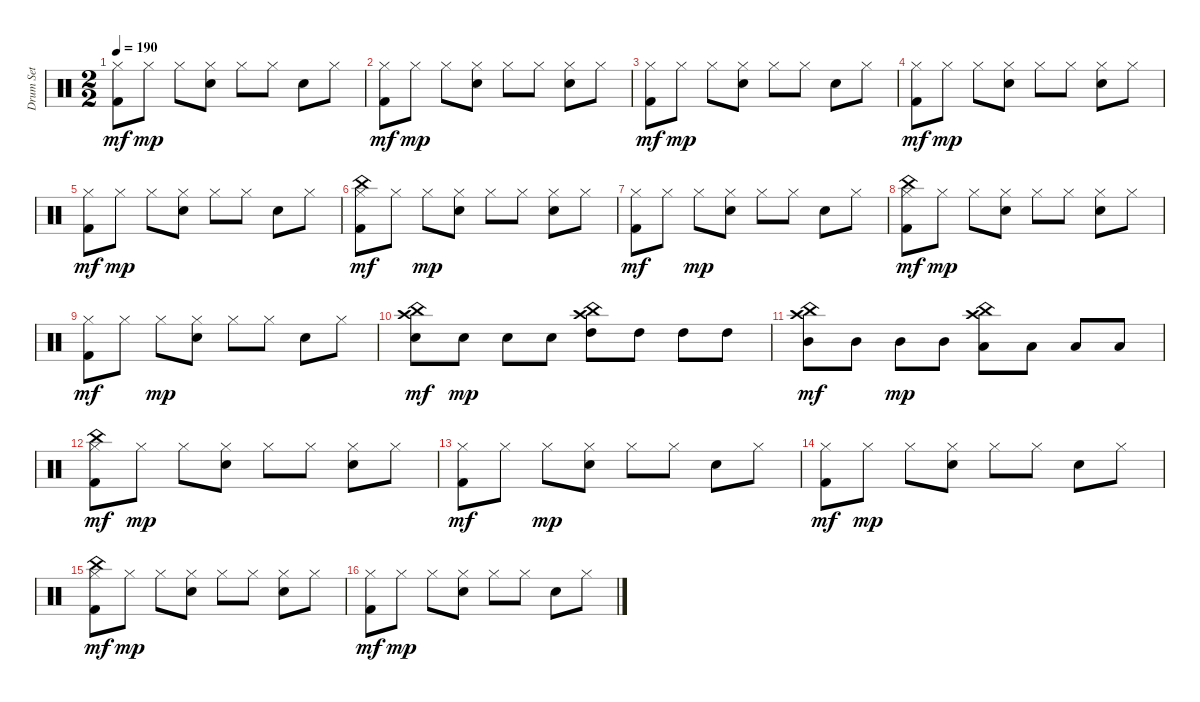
\track ("Drum Set" "Drum Set") {instrument percussion}
\staff {score}
\articulation defaults
\ts (2 2)
\tempo 190
\clef neutral
\ks c
("Kick (hit) 2" "Hi-Hat (closed)").8{dy mf} "Hi-Hat (closed)".8{dy mp} "Hi-Hat (closed)".8 ("Snare (hit) 2" "Hi-Hat (closed)").8 "Hi-Hat (closed)".8 "Hi-Hat (closed)".8 "Snare (hit) 2".8 "Hi-Hat (closed)".8 |
("Kick (hit) 2" "Hi-Hat (closed)").8{dy mf} "Hi-Hat (closed)".8{dy mp} "Hi-Hat (closed)".8 ("Snare (hit) 2" "Hi-Hat (closed)").8 "Hi-Hat (closed)".8 "Hi-Hat (closed)".8 ("Snare (hit) 2" "Hi-Hat (closed)").8 "Hi-Hat (closed)".8 |
("Kick (hit) 2" "Hi-Hat (closed)").8{dy mf} "Hi-Hat (closed)".8{dy mp} "Hi-Hat (closed)".8 ("Snare (hit) 2" "Hi-Hat (closed)").8 "Hi-Hat (closed)".8 "Hi-Hat (closed)".8 "Snare (hit) 2".8 "Hi-Hat (closed)".8 |
("Kick (hit) 2" "Hi-Hat (closed)").8{dy mf} "Hi-Hat (closed)".8{dy mp} "Hi-Hat (closed)".8 ("Snare (hit) 2" "Hi-Hat (closed)").8 "Hi-Hat (closed)".8 "Hi-Hat (closed)".8 ("Snare (hit) 2" "Hi-Hat (closed)").8 "Hi-Hat (closed)".8 |
("Kick (hit) 2" "Hi-Hat (closed)").8{dy mf} "Hi-Hat (closed)".8{dy mp} "Hi-Hat (closed)".8 ("Snare (hit) 2" "Hi-Hat (closed)").8 "Hi-Hat (closed)".8 "Hi-Hat (closed)".8 "Snare (hit) 2".8 "Hi-Hat (closed)".8 |
("Kick (hit) 2" "China (hit)" "Hi-Hat (closed)").8{dy mf} "Hi-Hat (closed)".8 "Hi-Hat (closed)".8{dy mp} ("Snare (hit) 2" "Hi-Hat (closed)").8 "Hi-Hat (closed)".8 "Hi-Hat (closed)".8 ("Snare (hit) 2" "Hi-Hat (closed)").8 "Hi-Hat (closed)".8 |
("Kick (hit) 2" "Hi-Hat (closed)").8{dy mf} "Hi-Hat (closed)".8 "Hi-Hat (closed)".8{dy mp} ("Snare (hit) 2" "Hi-Hat (closed)").8 "Hi-Hat (closed)".8 "Hi-Hat (closed)".8 "Snare (hit) 2".8 "Hi-Hat (closed)".8 |
("Kick (hit) 2" "China (hit)" "Hi-Hat (closed)").8{dy mf} "Hi-Hat (closed)".8{dy mp} "Hi-Hat (closed)".8 ("Snare (hit) 2" "Hi-Hat (closed)").8 "Hi-Hat (closed)".8 "Hi-Hat (closed)".8 ("Snare (hit) 2" "Hi-Hat (closed)").8 "Hi-Hat (closed)".8 |
("Kick (hit) 2" "Hi-Hat (closed)").8{dy mf} "Hi-Hat (closed)".8 "Hi-Hat (closed)".8{dy mp} ("Snare (hit) 2" "Hi-Hat (closed)").8 "Hi-Hat (closed)".8 "Hi-Hat (closed)".8 "Snare (hit) 2".8 "Hi-Hat (closed)".8 |
("Crash high (hit)" "China (hit)" "Snare (hit) 2").8{dy mf} "Snare (hit) 2".8{dy mp} "Snare (hit) 2".8 "Snare (hit) 2".8 ("Crash high (hit)" "High Tom (hit)" "China (hit)").8 "High Tom (hit)".8 "High Tom (hit)".8 "High Tom (hit)".8 |
("Crash high (hit)" "Mid Tom (hit)" "China (hit)").8{dy mf} "Mid Tom (hit)".8 "Mid Tom (hit)".8{dy mp} "Mid Tom (hit)".8 ("Crash high (hit)" "China (hit)" "Low Tom (hit)").8 "Low Tom (hit)".8 "Low Tom (hit)".8 "Low Tom (hit)".8 |
("Kick (hit) 2" "Hi-Hat (closed)" "China (hit)").8{dy mf} "Hi-Hat (closed)".8{dy mp} "Hi-Hat (closed)".8 ("Snare (hit) 2" "Hi-Hat (closed)").8 "Hi-Hat (closed)".8 "Hi-Hat (closed)".8 ("Snare (hit) 2" "Hi-Hat (closed)").8 "Hi-Hat (closed)".8 |
("Kick (hit) 2" "Hi-Hat (closed)").8{dy mf} "Hi-Hat (closed)".8 "Hi-Hat (closed)".8{dy mp} ("Snare (hit) 2" "Hi-Hat (closed)").8 "Hi-Hat (closed)".8 "Hi-Hat (closed)".8 "Snare (hit) 2".8 "Hi-Hat (closed)".8 |
("Kick (hit) 2" "Hi-Hat (closed)").8{dy mf} "Hi-Hat (closed)".8{dy mp} "Hi-Hat (closed)".8 ("Snare (hit) 2" "Hi-Hat (closed)").8 "Hi-Hat (closed)".8 "Hi-Hat (closed)".8 "Snare (hit) 2".8 "Hi-Hat (closed)".8 |
("Kick (hit) 2" "Hi-Hat (closed)" "China (hit)").8{dy mf} "Hi-Hat (closed)".8{dy mp} "Hi-Hat (closed)".8 ("Snare (hit) 2" "Hi-Hat (closed)").8 "Hi-Hat (closed)".8 "Hi-Hat (closed)".8 ("Snare (hit) 2" "Hi-Hat (closed)").8 "Hi-Hat (closed)".8 |
("Kick (hit) 2" "Hi-Hat (closed)").8{dy mf} "Hi-Hat (closed)".8{dy mp} "Hi-Hat (closed)".8 ("Snare (hit) 2" "Hi-Hat (closed)").8 "Hi-Hat (closed)".8 "Hi-Hat (closed)".8 "Snare (hit) 2".8 "Hi-Hat (closed)".8
